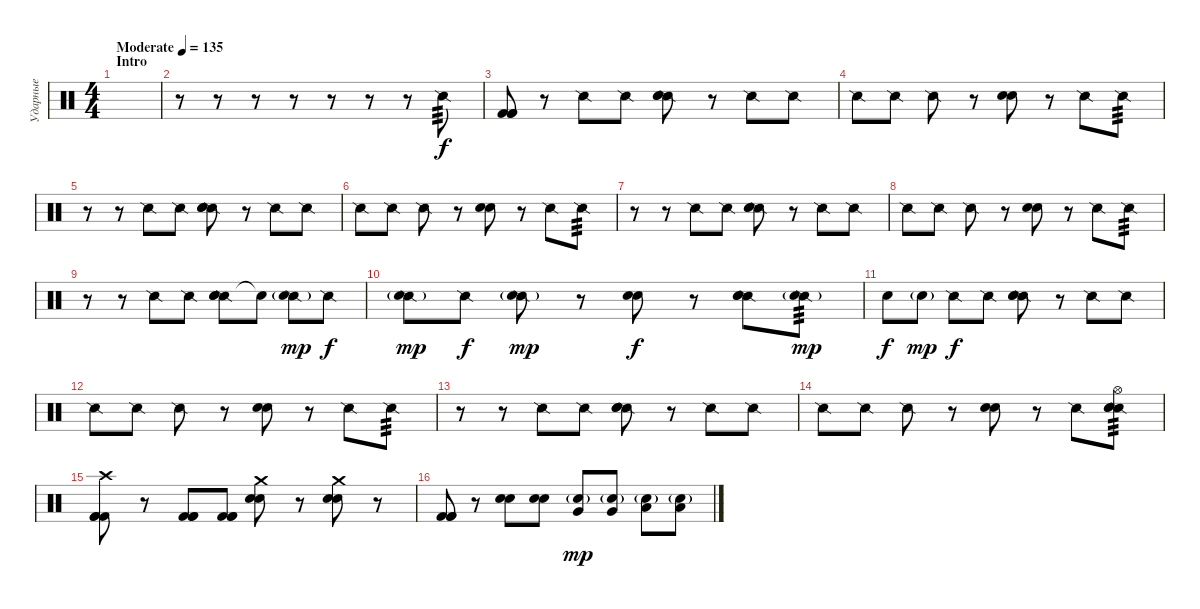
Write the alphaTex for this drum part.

\track ("Ударные" "Ударные") {instrument percussion}
\staff {score}
\articulation defaults
\ts (4 4)
\section ("" "Intro")
\tempo (135 "Moderate")
\clef neutral
\ks c
|
r.8 r.8 r.8 r.8 r.8 r.8 r.8 "Snare (side stick) 2".8{tp 3} |
("Kick (hit) 2" "Kick (hit) 2" "Kick (hit) 2").8 r.8 "Snare (side stick) 2".8 "Snare (side stick) 2".8 ("Snare (side stick) 2" "Electric Snare (hit)" "Electric Snare (hit)").8 r.8 "Snare (side stick) 2".8 "Snare (side stick) 2".8 |
"Snare (side stick) 2".8 "Snare (side stick) 2".8 "Snare (side stick) 2".8 r.8 ("Electric Snare (hit)" "Electric Snare (hit)").8 r.8 "Snare (side stick) 2".8 "Snare (side stick) 2".8{tp 3} |
r.8 r.8 "Snare (side stick) 2".8 "Snare (side stick) 2".8 ("Snare (side stick) 2" "Electric Snare (hit)" "Electric Snare (hit)").8 r.8 "Snare (side stick) 2".8 "Snare (side stick) 2".8 |
"Snare (side stick) 2".8 "Snare (side stick) 2".8 "Snare (side stick) 2".8 r.8 ("Electric Snare (hit)" "Electric Snare (hit)").8 r.8 "Snare (side stick) 2".8 "Snare (side stick) 2".8{tp 3} |
r.8 r.8 "Snare (side stick) 2".8 "Snare (side stick) 2".8 ("Snare (side stick) 2" "Electric Snare (hit)" "Electric Snare (hit)").8 r.8 "Snare (side stick) 2".8 "Snare (side stick) 2".8 |
"Snare (side stick) 2".8 "Snare (side stick) 2".8 "Snare (side stick) 2".8 r.8 ("Electric Snare (hit)" "Electric Snare (hit)").8 r.8 "Snare (side stick) 2".8 "Snare (side stick) 2".8{tp 3} |
r.8 r.8 "Snare (side stick) 2".8 "Snare (side stick) 2".8 ("Snare (side stick) 2" "Electric Snare (hit)" "Electric Snare (hit)").8 "Electric Snare (hit)"{t}.8 ("Snare (side stick) 2" "Electric Snare (hit)"{g}).8{dy mp} "Snare (side stick) 2".8{dy f} |
("Snare (side stick) 2" "Electric Snare (hit)"{g}).8{dy mp} "Snare (side stick) 2".8{dy f} ("Snare (side stick) 2" "Electric Snare (hit)"{g}).8{dy mp} r.8 ("Electric Snare (hit)" "Electric Snare (hit)").8{dy f} r.8 ("Snare (side stick) 2" "Electric Snare (hit)" "Electric Snare (hit)").8 ("Snare (side stick) 2" "Electric Snare (hit)"{g}).8{tp 3 dy mp} |
"Electric Snare (hit)".8{dy f} "Electric Snare (hit)"{g}.8{dy mp} "Snare (side stick) 2".8{dy f} "Snare (side stick) 2".8 ("Snare (side stick) 2" "Electric Snare (hit)" "Electric Snare (hit)").8 r.8 "Snare (side stick) 2".8 "Snare (side stick) 2".8 |
"Snare (side stick) 2".8 "Snare (side stick) 2".8 "Snare (side stick) 2".8 r.8 ("Electric Snare (hit)" "Electric Snare (hit)").8 r.8 "Snare (side stick) 2".8 "Snare (side stick) 2".8{tp 3} |
r.8 r.8 "Snare (side stick) 2".8 "Snare (side stick) 2".8 ("Snare (side stick) 2" "Electric Snare (hit)" "Electric Snare (hit)").8 r.8 "Snare (side stick) 2".8 "Snare (side stick) 2".8 |
"Snare (side stick) 2".8 "Snare (side stick) 2".8 "Snare (side stick) 2".8 r.8 ("Electric Snare (hit)" "Electric Snare (hit)").8 r.8 "Snare (side stick) 2".8 ("Snare (side stick) 2" "Hi-Hat (open)" "Electric Snare (hit)" "Electric Snare (hit)").8{tp 3} |
("Crash high (hit)" "Kick (hit) 2" "Kick (hit) 2" "Kick (hit) 2").8 r.8 ("Kick (hit) 2" "Kick (hit) 2" "Kick (hit) 2").8 ("Kick (hit) 2" "Kick (hit) 2" "Kick (hit) 2").8 ("Crash medium (hit)" "Electric Snare (hit)" "Electric Snare (hit)").8 r.8 ("Crash medium (hit)" "Electric Snare (hit)" "Electric Snare (hit)").8 r.8 |
("Kick (hit) 2" "Kick (hit) 2" "Kick (hit) 2").8 r.8 ("Electric Snare (hit)" "Electric Snare (hit)").8 ("Electric Snare (hit)" "Electric Snare (hit)").8 ("Very Low Tom (hit)" "Electric Snare (hit)"{g}).8{dy mp} ("Very Low Tom (hit)" "Electric Snare (hit)"{g}).8 ("Low Floor Tom (hit)" "Electric Snare (hit)"{g}).8 ("Low Floor Tom (hit)" "Electric Snare (hit)"{g}).8
